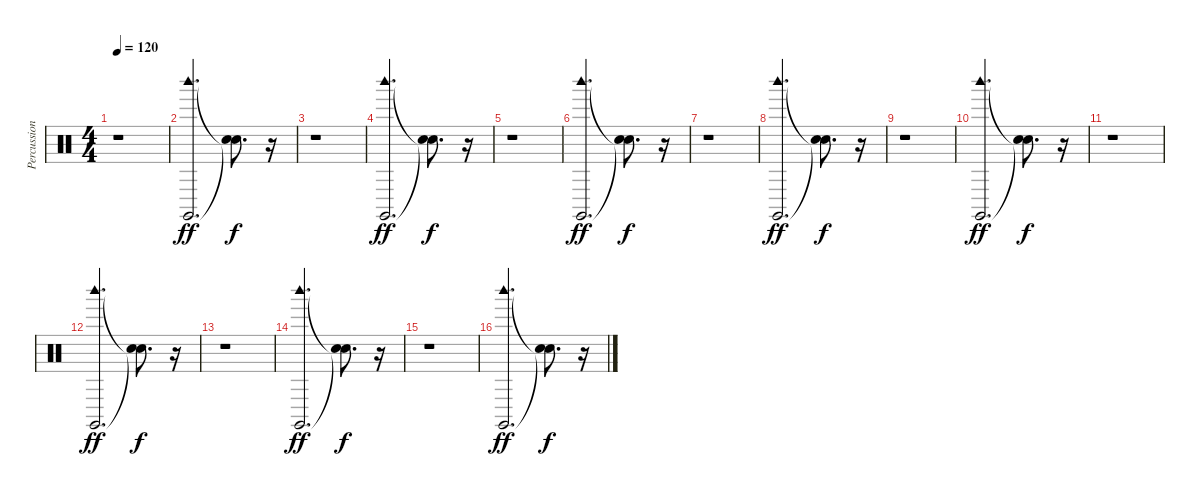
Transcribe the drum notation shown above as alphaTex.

\track ("Percussions" "Percussion") {instrument percussion}
\staff {score}
\articulation defaults
\ts (4 4)
\tempo 120
\clef neutral
\ks c
r.1{dy f} |
("Claves (hit)" "Woodblock high (hit)").2{d dy ff} ("Snare (hit)"{t} "Snare (hit)"{t}).8{d dy f} r.16 |
r.1 |
("Claves (hit)" "Woodblock high (hit)").2{d dy ff} ("Snare (hit)"{t} "Snare (hit)"{t}).8{d dy f} r.16 |
r.1 |
("Claves (hit)" "Woodblock high (hit)").2{d dy ff} ("Snare (hit)"{t} "Snare (hit)"{t}).8{d dy f} r.16 |
r.1 |
("Claves (hit)" "Woodblock high (hit)").2{d dy ff} ("Snare (hit)"{t} "Snare (hit)"{t}).8{d dy f} r.16 |
r.1 |
("Claves (hit)" "Woodblock high (hit)").2{d dy ff} ("Snare (hit)"{t} "Snare (hit)"{t}).8{d dy f} r.16 |
r.1 |
("Claves (hit)" "Woodblock high (hit)").2{d dy ff} ("Snare (hit)"{t} "Snare (hit)"{t}).8{d dy f} r.16 |
r.1 |
("Claves (hit)" "Woodblock high (hit)").2{d dy ff} ("Snare (hit)"{t} "Snare (hit)"{t}).8{d dy f} r.16 |
r.1 |
("Claves (hit)" "Woodblock high (hit)").2{d dy ff} ("Snare (hit)"{t} "Snare (hit)"{t}).8{d dy f} r.16
